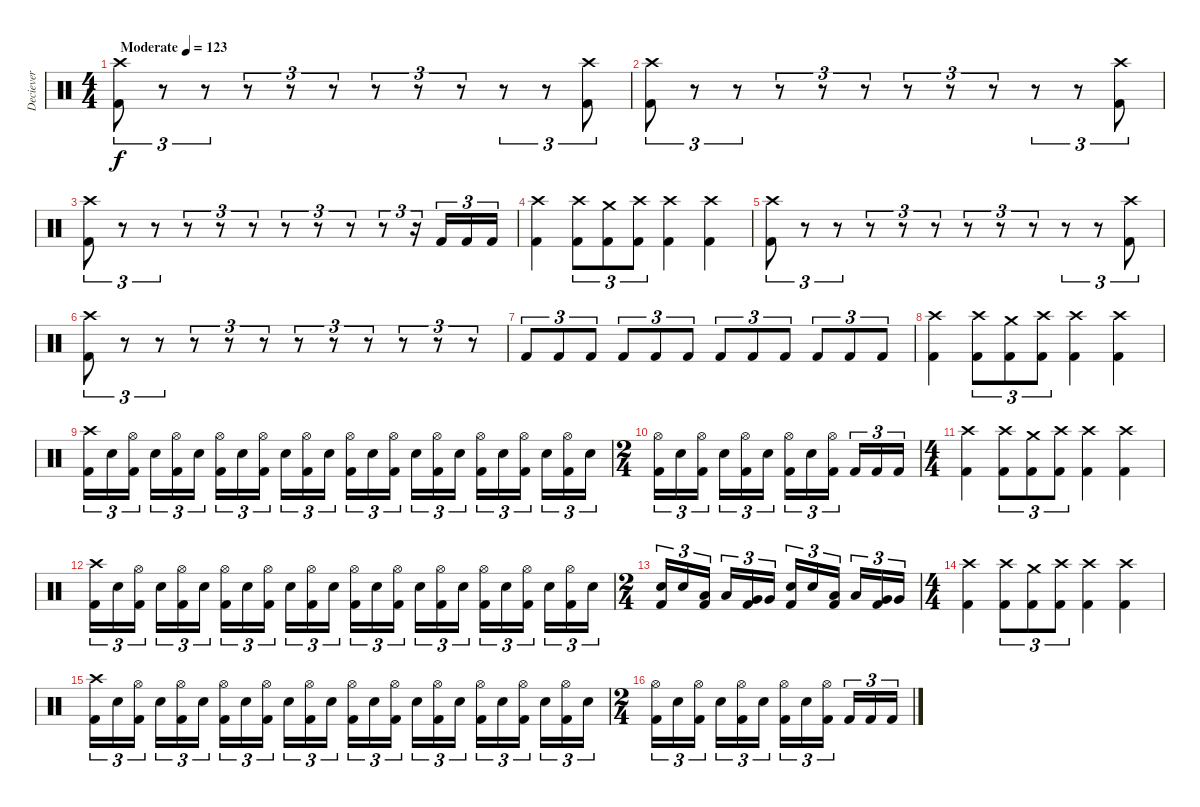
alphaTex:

\track ("Deciever" "Deciever") {instrument percussion}
\staff {score}
\articulation defaults
\ts (4 4)
\tempo (123 "Moderate")
\clef neutral
\ks c
("Crash high (hit)" "Kick (hit) 2").8{tu (3 2) dy f} r.8{tu (3 2)} r.8{tu (3 2)} r.8{tu (3 2)} r.8{tu (3 2)} r.8{tu (3 2)} r.8{tu (3 2)} r.8{tu (3 2)} r.8{tu (3 2)} r.8{tu (3 2)} r.8{tu (3 2)} ("Crash high (hit)" "Kick (hit) 2").8{tu (3 2)} |
("Crash high (hit)" "Kick (hit) 2").8{tu (3 2)} r.8{tu (3 2)} r.8{tu (3 2)} r.8{tu (3 2)} r.8{tu (3 2)} r.8{tu (3 2)} r.8{tu (3 2)} r.8{tu (3 2)} r.8{tu (3 2)} r.8{tu (3 2)} r.8{tu (3 2)} ("Crash high (hit)" "Kick (hit) 2").8{tu (3 2)} |
("Crash high (hit)" "Kick (hit) 2").8{tu (3 2)} r.8{tu (3 2)} r.8{tu (3 2)} r.8{tu (3 2)} r.8{tu (3 2)} r.8{tu (3 2)} r.8{tu (3 2)} r.8{tu (3 2)} r.8{tu (3 2)} r.8{tu (3 2)} r.16{tu (3 2)} "Kick (hit) 2".16{tu (3 2)} "Kick (hit) 2".16{tu (3 2)} "Kick (hit) 2".16{tu (3 2)} |
("Crash high (hit)" "Kick (hit) 2").4 ("Crash high (hit)" "Kick (hit) 2").8{tu (3 2)} ("Crash medium (hit)" "Kick (hit) 2").8{tu (3 2)} ("Crash high (hit)" "Kick (hit) 2").8{tu (3 2)} ("Crash high (hit)" "Kick (hit) 2").4 ("Crash high (hit)" "Kick (hit) 2").4 |
("Crash high (hit)" "Kick (hit) 2").8{tu (3 2)} r.8{tu (3 2)} r.8{tu (3 2)} r.8{tu (3 2)} r.8{tu (3 2)} r.8{tu (3 2)} r.8{tu (3 2)} r.8{tu (3 2)} r.8{tu (3 2)} r.8{tu (3 2)} r.8{tu (3 2)} ("Crash high (hit)" "Kick (hit) 2").8{tu (3 2)} |
("Crash high (hit)" "Kick (hit) 2").8{tu (3 2)} r.8{tu (3 2)} r.8{tu (3 2)} r.8{tu (3 2)} r.8{tu (3 2)} r.8{tu (3 2)} r.8{tu (3 2)} r.8{tu (3 2)} r.8{tu (3 2)} r.8{tu (3 2)} r.8{tu (3 2)} r.8{tu (3 2)} |
"Kick (hit) 2".8{tu (3 2)} "Kick (hit) 2".8{tu (3 2)} "Kick (hit) 2".8{tu (3 2)} "Kick (hit) 2".8{tu (3 2)} "Kick (hit) 2".8{tu (3 2)} "Kick (hit) 2".8{tu (3 2)} "Kick (hit) 2".8{tu (3 2)} "Kick (hit) 2".8{tu (3 2)} "Kick (hit) 2".8{tu (3 2)} "Kick (hit) 2".8{tu (3 2)} "Kick (hit) 2".8{tu (3 2)} "Kick (hit) 2".8{tu (3 2)} |
("Crash high (hit)" "Kick (hit) 2").4 ("Crash high (hit)" "Kick (hit) 2").8{tu (3 2)} ("Crash medium (hit)" "Kick (hit) 2").8{tu (3 2)} ("Crash high (hit)" "Kick (hit) 2").8{tu (3 2)} ("Crash high (hit)" "Kick (hit) 2").4 ("Crash high (hit)" "Kick (hit) 2").4 |
("Crash high (hit)" "Kick (hit) 2").16{tu (3 2)} "Electric Snare (hit)".16{tu (3 2)} ("Hi-Hat (open)" "Kick (hit) 2").16{tu (3 2) beam splitsecondary} "Electric Snare (hit)".16{tu (3 2)} ("Hi-Hat (open)" "Kick (hit) 2").16{tu (3 2)} "Electric Snare (hit)".16{tu (3 2)} ("Hi-Hat (open)" "Kick (hit) 2").16{tu (3 2)} "Electric Snare (hit)".16{tu (3 2)} ("Hi-Hat (open)" "Kick (hit) 2").16{tu (3 2) beam splitsecondary} "Electric Snare (hit)".16{tu (3 2)} ("Hi-Hat (open)" "Kick (hit) 2").16{tu (3 2)} "Electric Snare (hit)".16{tu (3 2)} ("Hi-Hat (open)" "Kick (hit) 2").16{tu (3 2)} "Electric Snare (hit)".16{tu (3 2)} ("Hi-Hat (open)" "Kick (hit) 2").16{tu (3 2) beam splitsecondary} "Electric Snare (hit)".16{tu (3 2)} ("Hi-Hat (open)" "Kick (hit) 2").16{tu (3 2)} "Electric Snare (hit)".16{tu (3 2)} ("Hi-Hat (open)" "Kick (hit) 2").16{tu (3 2)} "Electric Snare (hit)".16{tu (3 2)} ("Hi-Hat (open)" "Kick (hit) 2").16{tu (3 2) beam splitsecondary} "Electric Snare (hit)".16{tu (3 2)} ("Hi-Hat (open)" "Kick (hit) 2").16{tu (3 2)} "Electric Snare (hit)".16{tu (3 2)} |
\ts (2 4)
("Hi-Hat (open)" "Kick (hit) 2").16{tu (3 2)} "Electric Snare (hit)".16{tu (3 2)} ("Hi-Hat (open)" "Kick (hit) 2").16{tu (3 2) beam splitsecondary} "Electric Snare (hit)".16{tu (3 2)} ("Hi-Hat (open)" "Kick (hit) 2").16{tu (3 2)} "Electric Snare (hit)".16{tu (3 2)} ("Hi-Hat (open)" "Kick (hit) 2").16{tu (3 2)} "Electric Snare (hit)".16{tu (3 2)} ("Hi-Hat (open)" "Kick (hit) 2").16{tu (3 2) beam splitsecondary} "Kick (hit) 2".16{tu (3 2)} "Kick (hit) 2".16{tu (3 2)} "Kick (hit) 2".16{tu (3 2)} |
\ts (4 4)
("Crash high (hit)" "Kick (hit) 2").4 ("Crash high (hit)" "Kick (hit) 2").8{tu (3 2)} ("Crash medium (hit)" "Kick (hit) 2").8{tu (3 2)} ("Crash high (hit)" "Kick (hit) 2").8{tu (3 2)} ("Crash high (hit)" "Kick (hit) 2").4 ("Crash high (hit)" "Kick (hit) 2").4 |
("Crash high (hit)" "Kick (hit) 2").16{tu (3 2)} "Electric Snare (hit)".16{tu (3 2)} ("Hi-Hat (open)" "Kick (hit) 2").16{tu (3 2) beam splitsecondary} "Electric Snare (hit)".16{tu (3 2)} ("Hi-Hat (open)" "Kick (hit) 2").16{tu (3 2)} "Electric Snare (hit)".16{tu (3 2)} ("Hi-Hat (open)" "Kick (hit) 2").16{tu (3 2)} "Electric Snare (hit)".16{tu (3 2)} ("Hi-Hat (open)" "Kick (hit) 2").16{tu (3 2) beam splitsecondary} "Electric Snare (hit)".16{tu (3 2)} ("Hi-Hat (open)" "Kick (hit) 2").16{tu (3 2)} "Electric Snare (hit)".16{tu (3 2)} ("Hi-Hat (open)" "Kick (hit) 2").16{tu (3 2)} "Electric Snare (hit)".16{tu (3 2)} ("Hi-Hat (open)" "Kick (hit) 2").16{tu (3 2) beam splitsecondary} "Electric Snare (hit)".16{tu (3 2)} ("Hi-Hat (open)" "Kick (hit) 2").16{tu (3 2)} "Electric Snare (hit)".16{tu (3 2)} ("Hi-Hat (open)" "Kick (hit) 2").16{tu (3 2)} "Electric Snare (hit)".16{tu (3 2)} ("Hi-Hat (open)" "Kick (hit) 2").16{tu (3 2) beam splitsecondary} "Electric Snare (hit)".16{tu (3 2)} ("Hi-Hat (open)" "Kick (hit) 2").16{tu (3 2)} "Electric Snare (hit)".16{tu (3 2)} |
\ts (2 4)
("Electric Snare (hit)" "Kick (hit) 2").16{tu (3 2)} "Electric Snare (hit)".16{tu (3 2)} ("Low Tom (hit)" "Kick (hit) 2").16{tu (3 2) beam splitsecondary} "Low Tom (hit)".16{tu (3 2)} ("Very Low Tom (hit)" "Kick (hit) 2").16{tu (3 2)} "Very Low Tom (hit)".16{tu (3 2)} ("Electric Snare (hit)" "Kick (hit) 2").16{tu (3 2)} "Electric Snare (hit)".16{tu (3 2)} ("Low Tom (hit)" "Kick (hit) 2").16{tu (3 2) beam splitsecondary} "Low Tom (hit)".16{tu (3 2)} ("Very Low Tom (hit)" "Kick (hit) 2").16{tu (3 2)} "Very Low Tom (hit)".16{tu (3 2)} |
\ts (4 4)
("Crash high (hit)" "Kick (hit) 2").4 ("Crash high (hit)" "Kick (hit) 2").8{tu (3 2)} ("Crash medium (hit)" "Kick (hit) 2").8{tu (3 2)} ("Crash high (hit)" "Kick (hit) 2").8{tu (3 2)} ("Crash high (hit)" "Kick (hit) 2").4 ("Crash high (hit)" "Kick (hit) 2").4 |
("Crash high (hit)" "Kick (hit) 2").16{tu (3 2)} "Electric Snare (hit)".16{tu (3 2)} ("Hi-Hat (open)" "Kick (hit) 2").16{tu (3 2) beam splitsecondary} "Electric Snare (hit)".16{tu (3 2)} ("Hi-Hat (open)" "Kick (hit) 2").16{tu (3 2)} "Electric Snare (hit)".16{tu (3 2)} ("Hi-Hat (open)" "Kick (hit) 2").16{tu (3 2)} "Electric Snare (hit)".16{tu (3 2)} ("Hi-Hat (open)" "Kick (hit) 2").16{tu (3 2) beam splitsecondary} "Electric Snare (hit)".16{tu (3 2)} ("Hi-Hat (open)" "Kick (hit) 2").16{tu (3 2)} "Electric Snare (hit)".16{tu (3 2)} ("Hi-Hat (open)" "Kick (hit) 2").16{tu (3 2)} "Electric Snare (hit)".16{tu (3 2)} ("Hi-Hat (open)" "Kick (hit) 2").16{tu (3 2) beam splitsecondary} "Electric Snare (hit)".16{tu (3 2)} ("Hi-Hat (open)" "Kick (hit) 2").16{tu (3 2)} "Electric Snare (hit)".16{tu (3 2)} ("Hi-Hat (open)" "Kick (hit) 2").16{tu (3 2)} "Electric Snare (hit)".16{tu (3 2)} ("Hi-Hat (open)" "Kick (hit) 2").16{tu (3 2) beam splitsecondary} "Electric Snare (hit)".16{tu (3 2)} ("Hi-Hat (open)" "Kick (hit) 2").16{tu (3 2)} "Electric Snare (hit)".16{tu (3 2)} |
\ts (2 4)
("Hi-Hat (open)" "Kick (hit) 2").16{tu (3 2)} "Electric Snare (hit)".16{tu (3 2)} ("Hi-Hat (open)" "Kick (hit) 2").16{tu (3 2) beam splitsecondary} "Electric Snare (hit)".16{tu (3 2)} ("Hi-Hat (open)" "Kick (hit) 2").16{tu (3 2)} "Electric Snare (hit)".16{tu (3 2)} ("Hi-Hat (open)" "Kick (hit) 2").16{tu (3 2)} "Electric Snare (hit)".16{tu (3 2)} ("Hi-Hat (open)" "Kick (hit) 2").16{tu (3 2) beam splitsecondary} "Kick (hit) 2".16{tu (3 2)} "Kick (hit) 2".16{tu (3 2)} "Kick (hit) 2".16{tu (3 2)}
